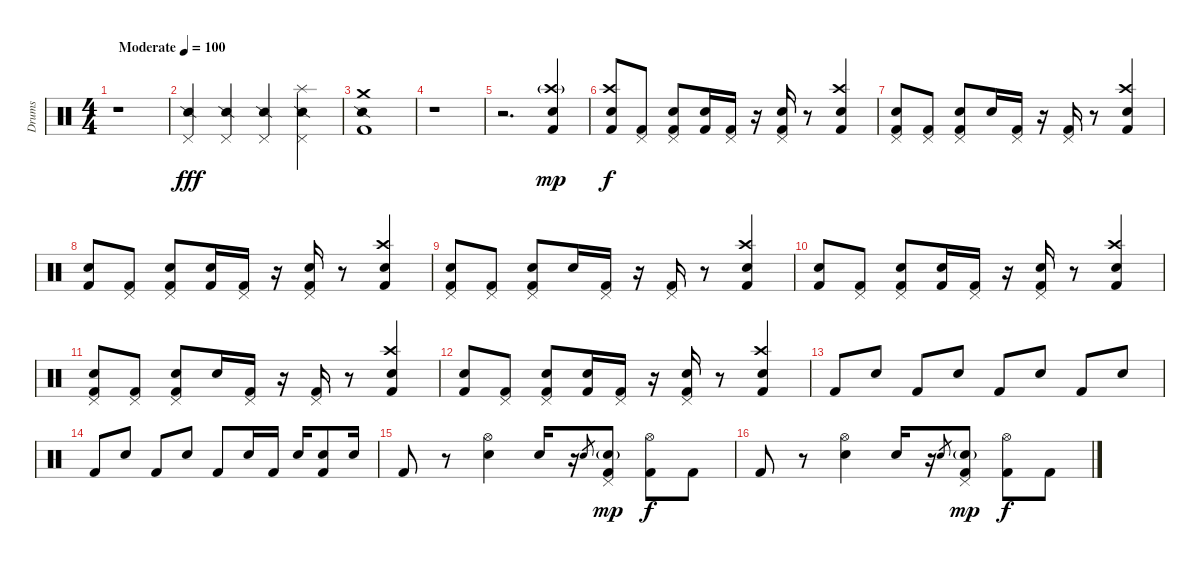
\track ("Drums" "Drums") {instrument percussion}
\staff {score}
\articulation defaults
\ts (4 4)
\tempo (100 "Moderate")
\clef neutral
\ks c
r.1{dy fff} |
("Snare (side stick) 2" "Pedal Hi-Hat (hit)").4 ("Snare (side stick) 2" "Pedal Hi-Hat (hit)").4 ("Snare (side stick) 2" "Pedal Hi-Hat (hit)").4 ("Snare (side stick) 2" "Splash (hit)" "Pedal Hi-Hat (hit)").4 |
("Snare (side stick) 2" "Kick (hit) 2" "Crash medium (hit)").1 |
r.1 |
r.2{d} ("Crash high (hit)"{g} "Snare (hit) 2" "Kick (hit) 2").4{dy mp} |
("Crash high (hit)" "Snare (hit) 2" "Kick (hit) 2").8{dy f} ("Pedal Hi-Hat (hit)" "Kick (hit) 2").8 ("Pedal Hi-Hat (hit)" "Snare (hit) 2" "Kick (hit) 2").8 ("Snare (hit) 2" "Kick (hit) 2").16 ("Pedal Hi-Hat (hit)" "Kick (hit) 2").16 r.16 ("Pedal Hi-Hat (hit)" "Snare (hit) 2" "Kick (hit) 2").16 r.8 ("Crash high (hit)" "Snare (hit) 2" "Kick (hit) 2").4 |
("Pedal Hi-Hat (hit)" "Snare (hit) 2" "Kick (hit) 2").8 ("Pedal Hi-Hat (hit)" "Kick (hit) 2").8 ("Pedal Hi-Hat (hit)" "Snare (hit) 2" "Kick (hit) 2").8 "Snare (hit) 2".16 ("Pedal Hi-Hat (hit)" "Kick (hit) 2").16 r.16 ("Pedal Hi-Hat (hit)" "Kick (hit) 2").16 r.8 ("Crash high (hit)" "Snare (hit) 2" "Kick (hit) 2").4 |
("Snare (hit) 2" "Kick (hit) 2").8 ("Pedal Hi-Hat (hit)" "Kick (hit) 2").8 ("Pedal Hi-Hat (hit)" "Snare (hit) 2" "Kick (hit) 2").8 ("Snare (hit) 2" "Kick (hit) 2").16 ("Pedal Hi-Hat (hit)" "Kick (hit) 2").16 r.16 ("Pedal Hi-Hat (hit)" "Snare (hit) 2" "Kick (hit) 2").16 r.8 ("Crash high (hit)" "Snare (hit) 2" "Kick (hit) 2").4 |
("Pedal Hi-Hat (hit)" "Snare (hit) 2" "Kick (hit) 2").8 ("Pedal Hi-Hat (hit)" "Kick (hit) 2").8 ("Pedal Hi-Hat (hit)" "Snare (hit) 2" "Kick (hit) 2").8 "Snare (hit) 2".16 ("Pedal Hi-Hat (hit)" "Kick (hit) 2").16 r.16 ("Pedal Hi-Hat (hit)" "Kick (hit) 2").16 r.8 ("Crash high (hit)" "Snare (hit) 2" "Kick (hit) 2").4 |
("Snare (hit) 2" "Kick (hit) 2").8 ("Pedal Hi-Hat (hit)" "Kick (hit) 2").8 ("Pedal Hi-Hat (hit)" "Snare (hit) 2" "Kick (hit) 2").8 ("Snare (hit) 2" "Kick (hit) 2").16 ("Pedal Hi-Hat (hit)" "Kick (hit) 2").16 r.16 ("Pedal Hi-Hat (hit)" "Snare (hit) 2" "Kick (hit) 2").16 r.8 ("Crash high (hit)" "Snare (hit) 2" "Kick (hit) 2").4 |
("Pedal Hi-Hat (hit)" "Snare (hit) 2" "Kick (hit) 2").8 ("Pedal Hi-Hat (hit)" "Kick (hit) 2").8 ("Pedal Hi-Hat (hit)" "Snare (hit) 2" "Kick (hit) 2").8 "Snare (hit) 2".16 ("Pedal Hi-Hat (hit)" "Kick (hit) 2").16 r.16 ("Pedal Hi-Hat (hit)" "Kick (hit) 2").16 r.8 ("Crash high (hit)" "Snare (hit) 2" "Kick (hit) 2").4 |
("Snare (hit) 2" "Kick (hit) 2").8 ("Pedal Hi-Hat (hit)" "Kick (hit) 2").8 ("Pedal Hi-Hat (hit)" "Snare (hit) 2" "Kick (hit) 2").8 ("Snare (hit) 2" "Kick (hit) 2").16 ("Pedal Hi-Hat (hit)" "Kick (hit) 2").16 r.16 ("Pedal Hi-Hat (hit)" "Snare (hit) 2" "Kick (hit) 2").16 r.8 ("Crash high (hit)" "Snare (hit) 2" "Kick (hit) 2").4 |
"Kick (hit) 2".8 "Snare (hit) 2".8 "Kick (hit) 2".8 "Snare (hit) 2".8 "Kick (hit) 2".8 "Snare (hit) 2".8 "Kick (hit) 2".8 "Snare (hit) 2".8 |
"Kick (hit) 2".8 "Snare (hit) 2".8 "Kick (hit) 2".8 "Snare (hit) 2".8 "Kick (hit) 2".8 "Snare (hit) 2".16 "Kick (hit) 2".16 "Snare (hit) 2".16 ("Snare (hit) 2" "Kick (hit) 2").8 "Snare (hit) 2".16 |
"Kick (hit) 2".8 r.8 ("Hi-Hat (open)" "Snare (hit) 2").4 "Snare (hit) 2".16 r.16 "Snare (hit) 2".8{gr} ("Pedal Hi-Hat (hit)" "Snare (hit) 2"{g} "Kick (hit) 2").8{dy mp} ("Hi-Hat (open)" "Kick (hit) 2").8{dy f} "Kick (hit) 2".8 |
"Kick (hit) 2".8 r.8 ("Hi-Hat (open)" "Snare (hit) 2").4 "Snare (hit) 2".16 r.16 "Snare (hit) 2".8{gr} ("Pedal Hi-Hat (hit)" "Snare (hit) 2"{g} "Kick (hit) 2").8{dy mp} ("Hi-Hat (open)" "Kick (hit) 2").8{dy f} "Kick (hit) 2".8
